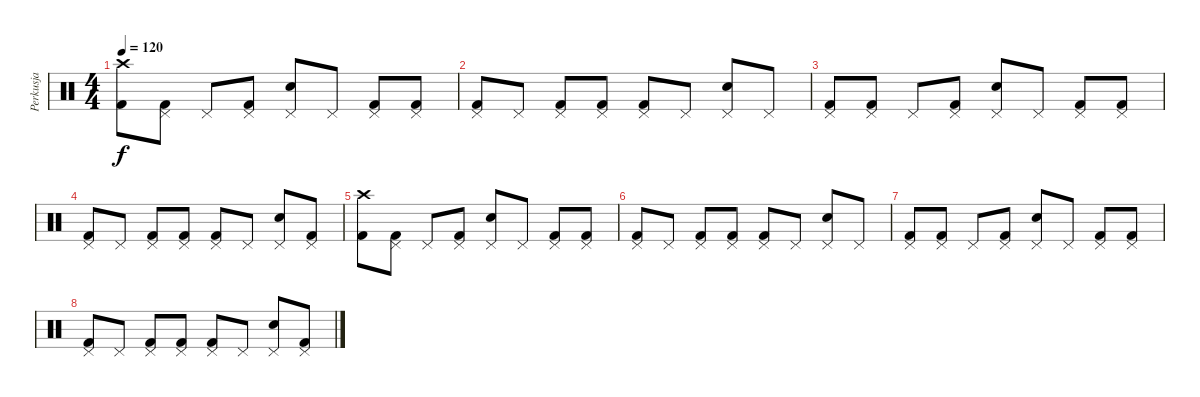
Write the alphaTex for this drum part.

\track ("Perkusja" "Perkusja") {instrument percussion}
\staff {score}
\articulation defaults
\ts (4 4)
\tempo 120
\clef neutral
\ks c
("Crash high (hit)" "Kick (hit) 2").8{dy f} ("Pedal Hi-Hat (hit)" "Kick (hit) 2").8 "Pedal Hi-Hat (hit)".8 ("Pedal Hi-Hat (hit)" "Kick (hit) 2").8 ("Pedal Hi-Hat (hit)" "Electric Snare (hit)").8 "Pedal Hi-Hat (hit)".8 ("Pedal Hi-Hat (hit)" "Kick (hit) 2").8 ("Pedal Hi-Hat (hit)" "Kick (hit) 2").8 |
("Pedal Hi-Hat (hit)" "Kick (hit) 2").8 "Pedal Hi-Hat (hit)".8 ("Pedal Hi-Hat (hit)" "Kick (hit) 2").8 ("Pedal Hi-Hat (hit)" "Kick (hit) 2").8 ("Pedal Hi-Hat (hit)" "Kick (hit) 2").8 "Pedal Hi-Hat (hit)".8 ("Pedal Hi-Hat (hit)" "Electric Snare (hit)").8 "Pedal Hi-Hat (hit)".8 |
("Pedal Hi-Hat (hit)" "Kick (hit) 2").8 ("Pedal Hi-Hat (hit)" "Kick (hit) 2").8 "Pedal Hi-Hat (hit)".8 ("Pedal Hi-Hat (hit)" "Kick (hit) 2").8 ("Pedal Hi-Hat (hit)" "Electric Snare (hit)").8 "Pedal Hi-Hat (hit)".8 ("Pedal Hi-Hat (hit)" "Kick (hit) 2").8 ("Pedal Hi-Hat (hit)" "Kick (hit) 2").8 |
("Pedal Hi-Hat (hit)" "Kick (hit) 2").8 "Pedal Hi-Hat (hit)".8 ("Pedal Hi-Hat (hit)" "Kick (hit) 2").8 ("Pedal Hi-Hat (hit)" "Kick (hit) 2").8 ("Pedal Hi-Hat (hit)" "Kick (hit) 2").8 "Pedal Hi-Hat (hit)".8 ("Pedal Hi-Hat (hit)" "Electric Snare (hit)").8 ("Pedal Hi-Hat (hit)" "Kick (hit) 2").8 |
("Crash high (hit)" "Kick (hit) 2").8 ("Pedal Hi-Hat (hit)" "Kick (hit) 2").8 "Pedal Hi-Hat (hit)".8 ("Pedal Hi-Hat (hit)" "Kick (hit) 2").8 ("Pedal Hi-Hat (hit)" "Electric Snare (hit)").8 "Pedal Hi-Hat (hit)".8 ("Pedal Hi-Hat (hit)" "Kick (hit) 2").8 ("Pedal Hi-Hat (hit)" "Kick (hit) 2").8 |
("Pedal Hi-Hat (hit)" "Kick (hit) 2").8 "Pedal Hi-Hat (hit)".8 ("Pedal Hi-Hat (hit)" "Kick (hit) 2").8 ("Pedal Hi-Hat (hit)" "Kick (hit) 2").8 ("Pedal Hi-Hat (hit)" "Kick (hit) 2").8 "Pedal Hi-Hat (hit)".8 ("Pedal Hi-Hat (hit)" "Electric Snare (hit)").8 "Pedal Hi-Hat (hit)".8 |
("Pedal Hi-Hat (hit)" "Kick (hit) 2").8 ("Pedal Hi-Hat (hit)" "Kick (hit) 2").8 "Pedal Hi-Hat (hit)".8 ("Pedal Hi-Hat (hit)" "Kick (hit) 2").8 ("Pedal Hi-Hat (hit)" "Electric Snare (hit)").8 "Pedal Hi-Hat (hit)".8 ("Pedal Hi-Hat (hit)" "Kick (hit) 2").8 ("Pedal Hi-Hat (hit)" "Kick (hit) 2").8 |
("Pedal Hi-Hat (hit)" "Kick (hit) 2").8 "Pedal Hi-Hat (hit)".8 ("Pedal Hi-Hat (hit)" "Kick (hit) 2").8 ("Pedal Hi-Hat (hit)" "Kick (hit) 2").8 ("Pedal Hi-Hat (hit)" "Kick (hit) 2").8 "Pedal Hi-Hat (hit)".8 ("Pedal Hi-Hat (hit)" "Electric Snare (hit)").8 ("Pedal Hi-Hat (hit)" "Kick (hit) 2").8
